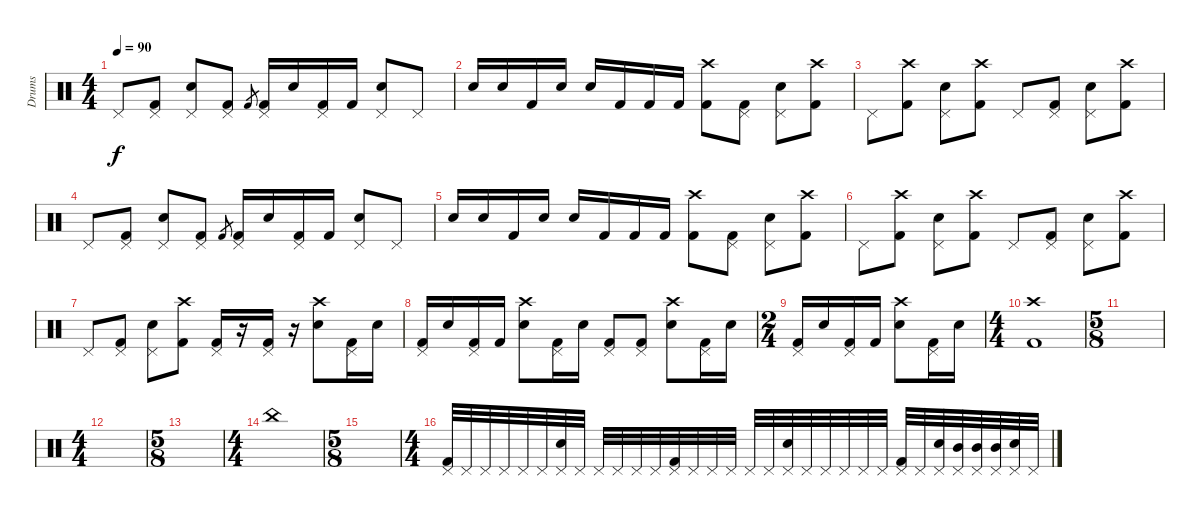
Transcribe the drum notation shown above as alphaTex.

\track ("Drums" "Drums") {instrument percussion}
\staff {score}
\articulation defaults
\ts (4 4)
\tempo 90
\clef neutral
\ks c "Pedal Hi-Hat (hit)".8{dy f}
("Pedal Hi-Hat (hit)" "Kick (hit) 2").8 ("Pedal Hi-Hat (hit)" "Electric Snare (hit)").8 ("Pedal Hi-Hat (hit)" "Kick (hit) 2").8 "Kick (hit) 2".8{gr} ("Pedal Hi-Hat (hit)" "Kick (hit) 2").16 "Electric Snare (hit)".16 ("Pedal Hi-Hat (hit)" "Kick (hit) 2").16 "Kick (hit) 2".16 ("Pedal Hi-Hat (hit)" "Electric Snare (hit)").8 "Pedal Hi-Hat (hit)".8 |
"Electric Snare (hit)".16 "Electric Snare (hit)".16 "Kick (hit) 2".16 "Electric Snare (hit)".16 "Electric Snare (hit)".16 "Kick (hit) 2".16 "Kick (hit) 2".16 "Kick (hit) 2".16 ("Crash high (hit)" "Kick (hit) 2").8 ("Pedal Hi-Hat (hit)" "Kick (hit) 2").8 ("Pedal Hi-Hat (hit)" "Electric Snare (hit)").8 ("Crash high (hit)" "Kick (hit) 2").8 |
"Pedal Hi-Hat (hit)".8 ("Crash high (hit)" "Kick (hit) 2").8 ("Pedal Hi-Hat (hit)" "Electric Snare (hit)").8 ("Crash high (hit)" "Kick (hit) 2").8 "Pedal Hi-Hat (hit)".8 ("Pedal Hi-Hat (hit)" "Kick (hit) 2").8 ("Pedal Hi-Hat (hit)" "Electric Snare (hit)").8 ("Crash high (hit)" "Kick (hit) 2").8 |
"Pedal Hi-Hat (hit)".8 ("Pedal Hi-Hat (hit)" "Kick (hit) 2").8 ("Pedal Hi-Hat (hit)" "Electric Snare (hit)").8 ("Pedal Hi-Hat (hit)" "Kick (hit) 2").8 "Kick (hit) 2".8{gr} ("Pedal Hi-Hat (hit)" "Kick (hit) 2").16 "Electric Snare (hit)".16 ("Pedal Hi-Hat (hit)" "Kick (hit) 2").16 "Kick (hit) 2".16 ("Pedal Hi-Hat (hit)" "Electric Snare (hit)").8 "Pedal Hi-Hat (hit)".8 |
"Electric Snare (hit)".16 "Electric Snare (hit)".16 "Kick (hit) 2".16 "Electric Snare (hit)".16 "Electric Snare (hit)".16 "Kick (hit) 2".16 "Kick (hit) 2".16 "Kick (hit) 2".16 ("Crash high (hit)" "Kick (hit) 2").8 ("Pedal Hi-Hat (hit)" "Kick (hit) 2").8 ("Pedal Hi-Hat (hit)" "Electric Snare (hit)").8 ("Crash high (hit)" "Kick (hit) 2").8 |
"Pedal Hi-Hat (hit)".8 ("Crash high (hit)" "Kick (hit) 2").8 ("Pedal Hi-Hat (hit)" "Electric Snare (hit)").8 ("Crash high (hit)" "Kick (hit) 2").8 "Pedal Hi-Hat (hit)".8 ("Pedal Hi-Hat (hit)" "Kick (hit) 2").8 ("Pedal Hi-Hat (hit)" "Electric Snare (hit)").8 ("Crash high (hit)" "Kick (hit) 2").8 |
"Pedal Hi-Hat (hit)".8 ("Pedal Hi-Hat (hit)" "Kick (hit) 2").8 ("Pedal Hi-Hat (hit)" "Electric Snare (hit)").8 ("Crash high (hit)" "Kick (hit) 2").8 ("Pedal Hi-Hat (hit)" "Kick (hit) 2").16 r.16 ("Pedal Hi-Hat (hit)" "Kick (hit) 2").16 r.16 ("Crash high (hit)" "Electric Snare (hit)").8 ("Pedal Hi-Hat (hit)" "Kick (hit) 2").16 "Electric Snare (hit)".16 |
("Pedal Hi-Hat (hit)" "Kick (hit) 2").16 "Electric Snare (hit)".16 ("Pedal Hi-Hat (hit)" "Kick (hit) 2").16 "Kick (hit) 2".16 ("Crash high (hit)" "Electric Snare (hit)").8 ("Pedal Hi-Hat (hit)" "Kick (hit) 2").16 "Electric Snare (hit)".16 ("Pedal Hi-Hat (hit)" "Kick (hit) 2").8 ("Pedal Hi-Hat (hit)" "Kick (hit) 2").8 ("Crash high (hit)" "Electric Snare (hit)").8 ("Pedal Hi-Hat (hit)" "Kick (hit) 2").16 "Electric Snare (hit)".16 |
\ts (2 4)
("Pedal Hi-Hat (hit)" "Kick (hit) 2").16 "Electric Snare (hit)".16 ("Pedal Hi-Hat (hit)" "Kick (hit) 2").16 "Kick (hit) 2".16 ("Crash high (hit)" "Electric Snare (hit)").8 ("Pedal Hi-Hat (hit)" "Kick (hit) 2").16 "Electric Snare (hit)".16 |
\ts (4 4)
("Kick (hit) 2" "Crash high (hit)").1 |
\ts (5 8)
|
\ts (4 4)
|
\ts (5 8)
|
\ts (4 4)
"China (hit)".1 |
\ts (5 8)
|
\ts (4 4)
("Pedal Hi-Hat (hit)" "Kick (hit) 2").32 "Pedal Hi-Hat (hit)".32 "Pedal Hi-Hat (hit)".32 "Pedal Hi-Hat (hit)".32 "Pedal Hi-Hat (hit)".32 "Pedal Hi-Hat (hit)".32 ("Pedal Hi-Hat (hit)" "Electric Snare (hit)").32 "Pedal Hi-Hat (hit)".32 "Pedal Hi-Hat (hit)".32 "Pedal Hi-Hat (hit)".32 "Pedal Hi-Hat (hit)".32 "Pedal Hi-Hat (hit)".32 ("Pedal Hi-Hat (hit)" "Kick (hit) 2").32 "Pedal Hi-Hat (hit)".32 "Pedal Hi-Hat (hit)".32 "Pedal Hi-Hat (hit)".32 "Pedal Hi-Hat (hit)".32 "Pedal Hi-Hat (hit)".32 ("Pedal Hi-Hat (hit)" "Electric Snare (hit)").32 "Pedal Hi-Hat (hit)".32 "Pedal Hi-Hat (hit)".32 "Pedal Hi-Hat (hit)".32 "Pedal Hi-Hat (hit)".32 "Pedal Hi-Hat (hit)".32 ("Pedal Hi-Hat (hit)" "Kick (hit) 2").32 "Pedal Hi-Hat (hit)".32 ("Pedal Hi-Hat (hit)" "Electric Snare (hit)").32 ("Pedal Hi-Hat (hit)" "Mid Tom (hit)").32 ("Pedal Hi-Hat (hit)" "Mid Tom (hit)").32 ("Pedal Hi-Hat (hit)" "Mid Tom (hit)").32 ("Pedal Hi-Hat (hit)" "Electric Snare (hit)").32 "Pedal Hi-Hat (hit)".32
